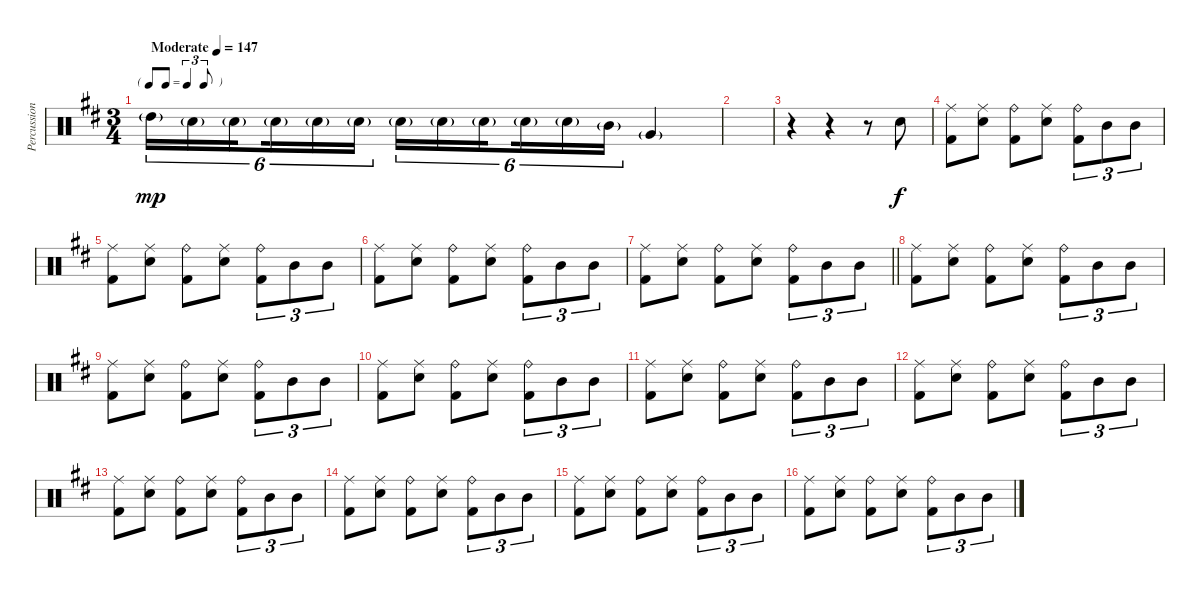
\track ("Percussion" "Percussion") {instrument percussion}
\staff {score}
\articulation defaults
\ts (3 4)
\tf triplet8th
\tempo (147 "Moderate")
\clef neutral
\ks d "High Tom (hit)"{g}.16{tu (6 4) dy mp} "Snare (hit) 2"{g}.16{tu (6 4)} "Snare (hit) 2"{g}.16{tu (6 4) beam splitsecondary} "Snare (hit) 2"{g}.16{tu (6 4)} "Snare (hit) 2"{g}.16{tu (6 4)} "Snare (hit) 2"{g}.16{tu (6 4)} "Snare (hit) 2"{g}.16{tu (6 4)} "Snare (hit) 2"{g}.16{tu (6 4)} "Snare (hit) 2"{g}.16{tu (6 4) beam splitsecondary} "Snare (hit) 2"{g}.16{tu (6 4)} "Snare (hit) 2"{g}.16{tu (6 4)} "Mid Tom (hit)"{g}.16{tu (6 4)} "Very Low Tom (hit)"{g}.4
|
|
r.4 r.4 r.8 "Snare (hit) 2".8{dy f} |
("Ride (middle)" "Kick (hit) 2").8 ("Ride (middle)" "Snare (hit) 2").8 ("Ride (bell)" "Kick (hit) 2").8 ("Ride (middle)" "Snare (hit) 2").8 ("Ride (bell)" "Kick (hit) 2").8{tu (3 2)} "Mid Tom (hit)".8{tu (3 2)} "Mid Tom (hit)".8{tu (3 2)} |
("Ride (middle)" "Kick (hit) 2").8 ("Ride (middle)" "Snare (hit) 2").8 ("Ride (bell)" "Kick (hit) 2").8 ("Ride (middle)" "Snare (hit) 2").8 ("Ride (bell)" "Kick (hit) 2").8{tu (3 2)} "Mid Tom (hit)".8{tu (3 2)} "Mid Tom (hit)".8{tu (3 2)} |
("Ride (middle)" "Kick (hit) 2").8 ("Ride (middle)" "Snare (hit) 2").8 ("Ride (bell)" "Kick (hit) 2").8 ("Ride (middle)" "Snare (hit) 2").8 ("Ride (bell)" "Kick (hit) 2").8{tu (3 2)} "Mid Tom (hit)".8{tu (3 2)} "Mid Tom (hit)".8{tu (3 2)} |
\barLineRight lightlight
("Ride (middle)" "Kick (hit) 2").8 ("Ride (middle)" "Snare (hit) 2").8 ("Ride (bell)" "Kick (hit) 2").8 ("Ride (middle)" "Snare (hit) 2").8 ("Ride (bell)" "Kick (hit) 2").8{tu (3 2)} "Mid Tom (hit)".8{tu (3 2)} "Mid Tom (hit)".8{tu (3 2)} |
("Ride (middle)" "Kick (hit) 2").8 ("Ride (middle)" "Snare (hit) 2").8 ("Ride (bell)" "Kick (hit) 2").8 ("Ride (middle)" "Snare (hit) 2").8 ("Ride (bell)" "Kick (hit) 2").8{tu (3 2)} "Mid Tom (hit)".8{tu (3 2)} "Mid Tom (hit)".8{tu (3 2)} |
("Ride (middle)" "Kick (hit) 2").8 ("Ride (middle)" "Snare (hit) 2").8 ("Ride (bell)" "Kick (hit) 2").8 ("Ride (middle)" "Snare (hit) 2").8 ("Ride (bell)" "Kick (hit) 2").8{tu (3 2)} "Mid Tom (hit)".8{tu (3 2)} "Mid Tom (hit)".8{tu (3 2)} |
("Ride (middle)" "Kick (hit) 2").8 ("Ride (middle)" "Snare (hit) 2").8 ("Ride (bell)" "Kick (hit) 2").8 ("Ride (middle)" "Snare (hit) 2").8 ("Ride (bell)" "Kick (hit) 2").8{tu (3 2)} "Mid Tom (hit)".8{tu (3 2)} "Mid Tom (hit)".8{tu (3 2)} |
("Ride (middle)" "Kick (hit) 2").8 ("Ride (middle)" "Snare (hit) 2").8 ("Ride (bell)" "Kick (hit) 2").8 ("Ride (middle)" "Snare (hit) 2").8 ("Ride (bell)" "Kick (hit) 2").8{tu (3 2)} "Mid Tom (hit)".8{tu (3 2)} "Mid Tom (hit)".8{tu (3 2)} |
("Ride (middle)" "Kick (hit) 2").8 ("Ride (middle)" "Snare (hit) 2").8 ("Ride (bell)" "Kick (hit) 2").8 ("Ride (middle)" "Snare (hit) 2").8 ("Ride (bell)" "Kick (hit) 2").8{tu (3 2)} "Mid Tom (hit)".8{tu (3 2)} "Mid Tom (hit)".8{tu (3 2)} |
("Ride (middle)" "Kick (hit) 2").8 ("Ride (middle)" "Snare (hit) 2").8 ("Ride (bell)" "Kick (hit) 2").8 ("Ride (middle)" "Snare (hit) 2").8 ("Ride (bell)" "Kick (hit) 2").8{tu (3 2)} "Mid Tom (hit)".8{tu (3 2)} "Mid Tom (hit)".8{tu (3 2)} |
("Ride (middle)" "Kick (hit) 2").8 ("Ride (middle)" "Snare (hit) 2").8 ("Ride (bell)" "Kick (hit) 2").8 ("Ride (middle)" "Snare (hit) 2").8 ("Ride (bell)" "Kick (hit) 2").8{tu (3 2)} "Mid Tom (hit)".8{tu (3 2)} "Mid Tom (hit)".8{tu (3 2)} |
("Ride (middle)" "Kick (hit) 2").8 ("Ride (middle)" "Snare (hit) 2").8 ("Ride (bell)" "Kick (hit) 2").8 ("Ride (middle)" "Snare (hit) 2").8 ("Ride (bell)" "Kick (hit) 2").8{tu (3 2)} "Mid Tom (hit)".8{tu (3 2)} "Mid Tom (hit)".8{tu (3 2)} |
("Ride (middle)" "Kick (hit) 2").8 ("Ride (middle)" "Snare (hit) 2").8 ("Ride (bell)" "Kick (hit) 2").8 ("Ride (middle)" "Snare (hit) 2").8 ("Ride (bell)" "Kick (hit) 2").8{tu (3 2)} "Mid Tom (hit)".8{tu (3 2)} "Mid Tom (hit)".8{tu (3 2)}
